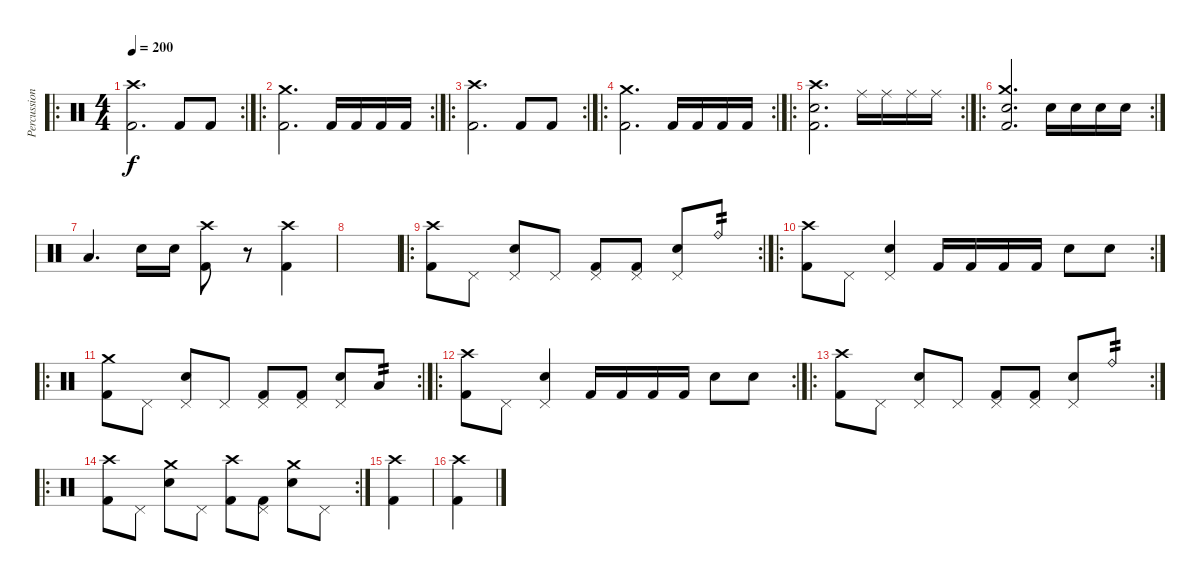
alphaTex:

\track ("Percussions" "Percussion") {instrument percussion}
\staff {score}
\articulation defaults
\ro
\rc 2
\ts (4 4)
\tempo 200
\clef neutral
\ks c
("Crash high (hit)" "Kick (hit) 2").2{d dy f} "Kick (hit) 2".8 "Kick (hit) 2".8 |
\ro
\rc 2
("Crash medium (hit)" "Kick (hit) 2").2{d} "Kick (hit) 2".16 "Kick (hit) 2".16 "Kick (hit) 2".16 "Kick (hit) 2".16 |
\ro
\rc 2
("Crash high (hit)" "Kick (hit) 2").2{d} "Kick (hit) 2".8 "Kick (hit) 2".8 |
\ro
\rc 2
("Crash medium (hit)" "Kick (hit) 2").2{d} "Kick (hit) 2".16 "Kick (hit) 2".16 "Kick (hit) 2".16 "Kick (hit) 2".16 |
\ro
\rc 2
("Crash high (hit)" "Snare (hit) 2" "Kick (hit) 2").2{d} "Ride (middle)".16 "Ride (middle)".16 "Ride (middle)".16 "Ride (middle)".16 |
\ro
\rc 2
("Snare (hit) 2" "Crash medium (hit)" "Kick (hit) 2").2{d} "Snare (hit) 2".16 "Snare (hit) 2".16 "Snare (hit) 2".16 "Snare (hit) 2".16 |
"Low Floor Tom (hit)".4{d} "Snare (hit) 2".16 "Snare (hit) 2".16 ("Crash high (hit)" "Kick (hit) 2").8 r.8 ("Crash high (hit)" "Kick (hit) 2").4 |
|
\ro
\rc 2
("Crash high (hit)" "Kick (hit) 2").8 "Pedal Hi-Hat (hit)".8 ("Pedal Hi-Hat (hit)" "Snare (hit) 2").8 "Pedal Hi-Hat (hit)".8 ("Pedal Hi-Hat (hit)" "Kick (hit) 2").8 ("Pedal Hi-Hat (hit)" "Kick (hit) 2").8 ("Pedal Hi-Hat (hit)" "Snare (hit) 2").8 "Ride (bell)".8{tp 2} |
\ro
\rc 2
("Crash high (hit)" "Kick (hit) 2").8 "Pedal Hi-Hat (hit)".8 ("Pedal Hi-Hat (hit)" "Snare (hit) 2").4 "Kick (hit) 2".16 "Kick (hit) 2".16 "Kick (hit) 2".16 "Kick (hit) 2".16 "Snare (hit) 2".8 "Snare (hit) 2".8 |
\ro
\rc 2
("Crash medium (hit)" "Kick (hit) 2").8 "Pedal Hi-Hat (hit)".8 ("Pedal Hi-Hat (hit)" "Snare (hit) 2").8 "Pedal Hi-Hat (hit)".8 ("Pedal Hi-Hat (hit)" "Kick (hit) 2").8 ("Pedal Hi-Hat (hit)" "Kick (hit) 2").8 ("Pedal Hi-Hat (hit)" "Snare (hit) 2").8 "Low Tom (hit)".8{tp 2} |
\ro
\rc 2
("Crash high (hit)" "Kick (hit) 2").8 "Pedal Hi-Hat (hit)".8 ("Pedal Hi-Hat (hit)" "Snare (hit) 2").4 "Kick (hit) 2".16 "Kick (hit) 2".16 "Kick (hit) 2".16 "Kick (hit) 2".16 "Snare (hit) 2".8 "Snare (hit) 2".8 |
\ro
\rc 2
("Crash high (hit)" "Kick (hit) 2").8 "Pedal Hi-Hat (hit)".8 ("Pedal Hi-Hat (hit)" "Snare (hit) 2").8 "Pedal Hi-Hat (hit)".8 ("Pedal Hi-Hat (hit)" "Kick (hit) 2").8 ("Pedal Hi-Hat (hit)" "Kick (hit) 2").8 ("Pedal Hi-Hat (hit)" "Snare (hit) 2").8 "Ride (bell)".8{tp 2} |
\ro
\rc 2
("Crash high (hit)" "Kick (hit) 2").8 "Pedal Hi-Hat (hit)".8 ("Crash medium (hit)" "Snare (hit) 2").8 "Pedal Hi-Hat (hit)".8 ("Crash high (hit)" "Kick (hit) 2").8 ("Pedal Hi-Hat (hit)" "Kick (hit) 2").8 ("Crash medium (hit)" "Snare (hit) 2").8 "Pedal Hi-Hat (hit)".8 |
("Crash high (hit)" "Kick (hit) 2").4 |
("Crash high (hit)" "Kick (hit) 2").4
